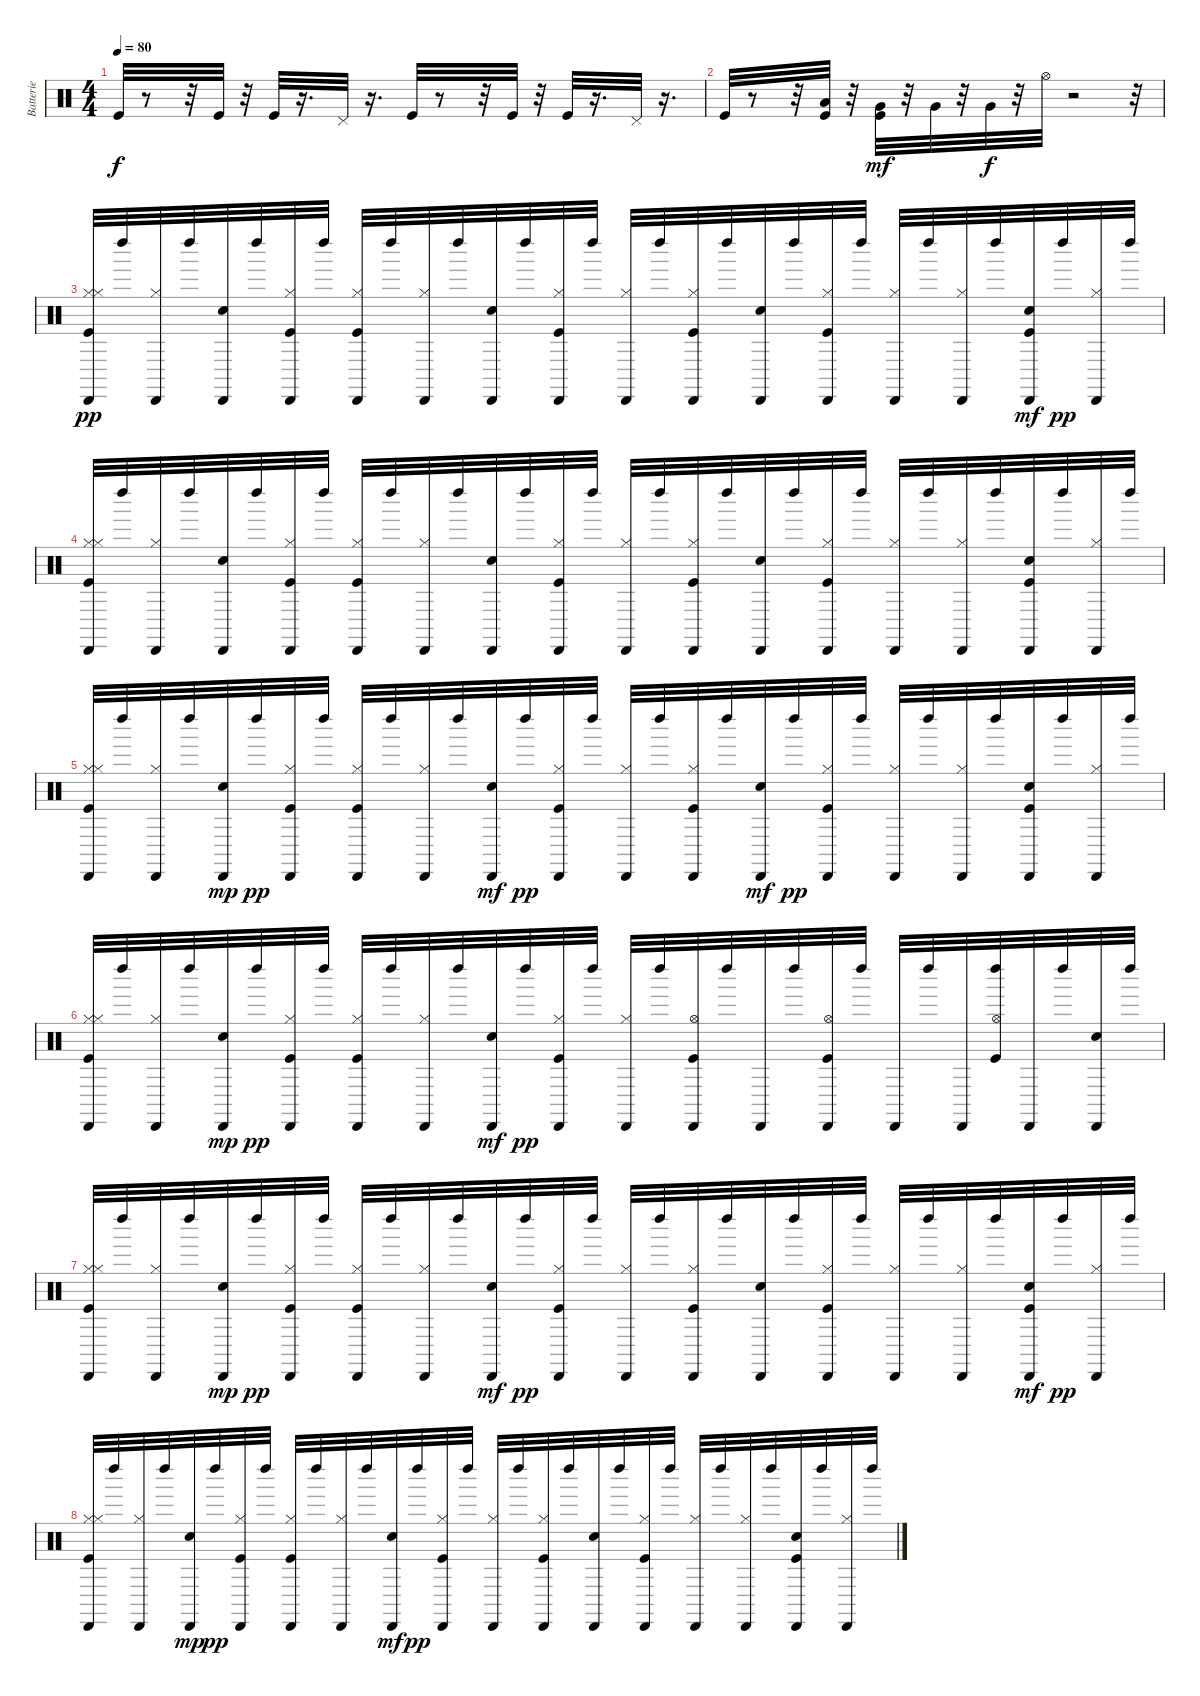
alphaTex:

\track ("Batterie" "Batterie") {instrument percussion}
\staff {score}
\articulation defaults
\ts (4 4)
\tempo 80
\clef neutral
\ks c "Kick (hit)".32{dy f}
r.8 r.32 "Kick (hit)".32 r.32 "Kick (hit)".32 r.16{d} "Pedal Hi-Hat (hit)".32 r.16{d} "Kick (hit)".32 r.8 r.32 "Kick (hit)".32 r.32 "Kick (hit)".32 r.16{d} "Pedal Hi-Hat (hit)".32 r.16{d} |
"Kick (hit)".32 r.8 r.32 ("Kick (hit)" "Low Tom (hit)").32 r.32 ("Kick (hit)" "Very Low Tom (hit)").32{dy mf} r.32 "Very Low Tom (hit)".32 r.32 "Very Low Tom (hit)".32{dy f} r.32 "Hi-Hat (open)".32 r.2 r.32 |
("Cabasa (hit)" "Hi-Hat (closed)" "Hi-Hat (closed)" "Kick (hit)").32{dy pp} "Left Maraca (hit)".32 ("Cabasa (hit)" "Hi-Hat (closed)").32 "Left Maraca (hit)".32 ("Electric Snare (hit)" "Cabasa (hit)").32 "Left Maraca (hit)".32 ("Cabasa (hit)" "Kick (hit)" "Hi-Hat (closed)").32 "Left Maraca (hit)".32 ("Cabasa (hit)" "Hi-Hat (closed)" "Kick (hit)").32 "Left Maraca (hit)".32 ("Hi-Hat (closed)" "Cabasa (hit)").32 "Left Maraca (hit)".32 ("Electric Snare (hit)" "Cabasa (hit)").32 "Left Maraca (hit)".32 ("Cabasa (hit)" "Kick (hit)" "Hi-Hat (closed)").32 "Left Maraca (hit)".32 ("Cabasa (hit)" "Hi-Hat (closed)").32 "Left Maraca (hit)".32 ("Kick (hit)" "Hi-Hat (closed)" "Cabasa (hit)").32 "Left Maraca (hit)".32 ("Electric Snare (hit)" "Cabasa (hit)").32 "Left Maraca (hit)".32 ("Kick (hit)" "Cabasa (hit)" "Hi-Hat (closed)").32 "Left Maraca (hit)".32 ("Hi-Hat (closed)" "Cabasa (hit)").32 "Left Maraca (hit)".32 ("Cabasa (hit)" "Hi-Hat (closed)").32 "Left Maraca (hit)".32 ("Cabasa (hit)" "Electric Snare (hit)" "Kick (hit)").32{dy mf} "Left Maraca (hit)".32{dy pp} ("Hi-Hat (closed)" "Cabasa (hit)").32 "Left Maraca (hit)".32 |
("Hi-Hat (closed)" "Kick (hit)" "Cabasa (hit)" "Hi-Hat (closed)").32 "Left Maraca (hit)".32 ("Cabasa (hit)" "Hi-Hat (closed)").32 "Left Maraca (hit)".32 ("Electric Snare (hit)" "Cabasa (hit)").32 "Left Maraca (hit)".32 ("Hi-Hat (closed)" "Cabasa (hit)" "Kick (hit)").32 "Left Maraca (hit)".32 ("Hi-Hat (closed)" "Cabasa (hit)" "Kick (hit)").32 "Left Maraca (hit)".32 ("Cabasa (hit)" "Hi-Hat (closed)").32 "Left Maraca (hit)".32 ("Electric Snare (hit)" "Cabasa (hit)").32 "Left Maraca (hit)".32 ("Hi-Hat (closed)" "Kick (hit)" "Cabasa (hit)").32 "Left Maraca (hit)".32 ("Hi-Hat (closed)" "Cabasa (hit)").32 "Left Maraca (hit)".32 ("Kick (hit)" "Hi-Hat (closed)" "Cabasa (hit)").32 "Left Maraca (hit)".32 ("Electric Snare (hit)" "Cabasa (hit)").32 "Left Maraca (hit)".32 ("Hi-Hat (closed)" "Cabasa (hit)" "Kick (hit)").32 "Left Maraca (hit)".32 ("Hi-Hat (closed)" "Cabasa (hit)").32 "Left Maraca (hit)".32 ("Hi-Hat (closed)" "Cabasa (hit)").32 "Left Maraca (hit)".32 ("Electric Snare (hit)" "Kick (hit)" "Cabasa (hit)").32 "Left Maraca (hit)".32 ("Hi-Hat (closed)" "Cabasa (hit)").32 "Left Maraca (hit)".32 |
("Hi-Hat (closed)" "Kick (hit)" "Hi-Hat (closed)" "Cabasa (hit)").32 "Left Maraca (hit)".32 ("Cabasa (hit)" "Hi-Hat (closed)").32 "Left Maraca (hit)".32 ("Cabasa (hit)" "Electric Snare (hit)").32{dy mp} "Left Maraca (hit)".32{dy pp} ("Kick (hit)" "Hi-Hat (closed)" "Cabasa (hit)").32 "Left Maraca (hit)".32 ("Hi-Hat (closed)" "Kick (hit)" "Cabasa (hit)").32 "Left Maraca (hit)".32 ("Hi-Hat (closed)" "Cabasa (hit)").32 "Left Maraca (hit)".32 ("Cabasa (hit)" "Electric Snare (hit)").32{dy mf} "Left Maraca (hit)".32{dy pp} ("Kick (hit)" "Hi-Hat (closed)" "Cabasa (hit)").32 "Left Maraca (hit)".32 ("Cabasa (hit)" "Hi-Hat (closed)").32 "Left Maraca (hit)".32 ("Kick (hit)" "Cabasa (hit)" "Hi-Hat (closed)").32 "Left Maraca (hit)".32 ("Cabasa (hit)" "Electric Snare (hit)").32{dy mf} "Left Maraca (hit)".32{dy pp} ("Cabasa (hit)" "Kick (hit)" "Hi-Hat (closed)").32 "Left Maraca (hit)".32 ("Cabasa (hit)" "Hi-Hat (closed)").32 "Left Maraca (hit)".32 ("Hi-Hat (closed)" "Cabasa (hit)").32 "Left Maraca (hit)".32 ("Electric Snare (hit)" "Cabasa (hit)" "Kick (hit)").32 "Left Maraca (hit)".32 ("Cabasa (hit)" "Hi-Hat (closed)").32 "Left Maraca (hit)".32 |
("Hi-Hat (closed)" "Hi-Hat (closed)" "Cabasa (hit)" "Kick (hit)").32 "Left Maraca (hit)".32 ("Hi-Hat (closed)" "Cabasa (hit)").32 "Left Maraca (hit)".32 ("Cabasa (hit)" "Electric Snare (hit)").32{dy mp} "Left Maraca (hit)".32{dy pp} ("Cabasa (hit)" "Kick (hit)" "Hi-Hat (closed)").32 "Left Maraca (hit)".32 ("Hi-Hat (closed)" "Kick (hit)" "Cabasa (hit)").32 "Left Maraca (hit)".32 ("Hi-Hat (closed)" "Cabasa (hit)").32 "Left Maraca (hit)".32 ("Cabasa (hit)" "Electric Snare (hit)").32{dy mf} "Left Maraca (hit)".32{dy pp} ("Cabasa (hit)" "Kick (hit)" "Hi-Hat (closed)").32 "Left Maraca (hit)".32 ("Hi-Hat (closed)" "Cabasa (hit)").32 "Left Maraca (hit)".32 ("Hi-Hat (open)" "Cabasa (hit)" "Kick (hit)").32 "Left Maraca (hit)".32 "Cabasa (hit)".32 "Left Maraca (hit)".32 ("Hi-Hat (open)" "Kick (hit)" "Cabasa (hit)").32 "Left Maraca (hit)".32 "Cabasa (hit)".32 "Left Maraca (hit)".32 "Cabasa (hit)".32 ("Kick (hit)" "Hi-Hat (open)" "Left Maraca (hit)").32 "Cabasa (hit)".32 "Left Maraca (hit)".32 ("Electric Snare (hit)" "Cabasa (hit)").32 "Left Maraca (hit)".32 |
("Hi-Hat (closed)" "Kick (hit)" "Cabasa (hit)" "Hi-Hat (closed)").32 "Left Maraca (hit)".32 ("Hi-Hat (closed)" "Cabasa (hit)").32 "Left Maraca (hit)".32 ("Cabasa (hit)" "Electric Snare (hit)").32{dy mp} "Left Maraca (hit)".32{dy pp} ("Kick (hit)" "Hi-Hat (closed)" "Cabasa (hit)").32 "Left Maraca (hit)".32 ("Kick (hit)" "Hi-Hat (closed)" "Cabasa (hit)").32 "Left Maraca (hit)".32 ("Hi-Hat (closed)" "Cabasa (hit)").32 "Left Maraca (hit)".32 ("Cabasa (hit)" "Electric Snare (hit)").32{dy mf} "Left Maraca (hit)".32{dy pp} ("Cabasa (hit)" "Kick (hit)" "Hi-Hat (closed)").32 "Left Maraca (hit)".32 ("Hi-Hat (closed)" "Cabasa (hit)").32 "Left Maraca (hit)".32 ("Kick (hit)" "Cabasa (hit)" "Hi-Hat (closed)").32 "Left Maraca (hit)".32 ("Electric Snare (hit)" "Cabasa (hit)").32 "Left Maraca (hit)".32 ("Cabasa (hit)" "Kick (hit)" "Hi-Hat (closed)").32 "Left Maraca (hit)".32 ("Hi-Hat (closed)" "Cabasa (hit)").32 "Left Maraca (hit)".32 ("Cabasa (hit)" "Hi-Hat (closed)").32 "Left Maraca (hit)".32 ("Kick (hit)" "Cabasa (hit)" "Electric Snare (hit)").32{dy mf} "Left Maraca (hit)".32{dy pp} ("Cabasa (hit)" "Hi-Hat (closed)").32 "Left Maraca (hit)".32 |
("Hi-Hat (closed)" "Cabasa (hit)" "Kick (hit)" "Hi-Hat (closed)").32 "Left Maraca (hit)".32 ("Cabasa (hit)" "Hi-Hat (closed)").32 "Left Maraca (hit)".32 ("Cabasa (hit)" "Electric Snare (hit)").32{dy mp} "Left Maraca (hit)".32{dy pp} ("Kick (hit)" "Cabasa (hit)" "Hi-Hat (closed)").32 "Left Maraca (hit)".32 ("Hi-Hat (closed)" "Cabasa (hit)" "Kick (hit)").32 "Left Maraca (hit)".32 ("Cabasa (hit)" "Hi-Hat (closed)").32 "Left Maraca (hit)".32 ("Cabasa (hit)" "Electric Snare (hit)").32{dy mf} "Left Maraca (hit)".32{dy pp} ("Kick (hit)" "Hi-Hat (closed)" "Cabasa (hit)").32 "Left Maraca (hit)".32 ("Hi-Hat (closed)" "Cabasa (hit)").32 "Left Maraca (hit)".32 ("Cabasa (hit)" "Kick (hit)" "Hi-Hat (closed)").32 "Left Maraca (hit)".32 ("Electric Snare (hit)" "Cabasa (hit)").32 "Left Maraca (hit)".32 ("Kick (hit)" "Hi-Hat (closed)" "Cabasa (hit)").32 "Left Maraca (hit)".32 ("Hi-Hat (closed)" "Cabasa (hit)").32 "Left Maraca (hit)".32 ("Hi-Hat (closed)" "Cabasa (hit)").32 "Left Maraca (hit)".32 ("Electric Snare (hit)" "Cabasa (hit)" "Kick (hit)").32 "Left Maraca (hit)".32 ("Cabasa (hit)" "Hi-Hat (closed)").32 "Left Maraca (hit)".32
